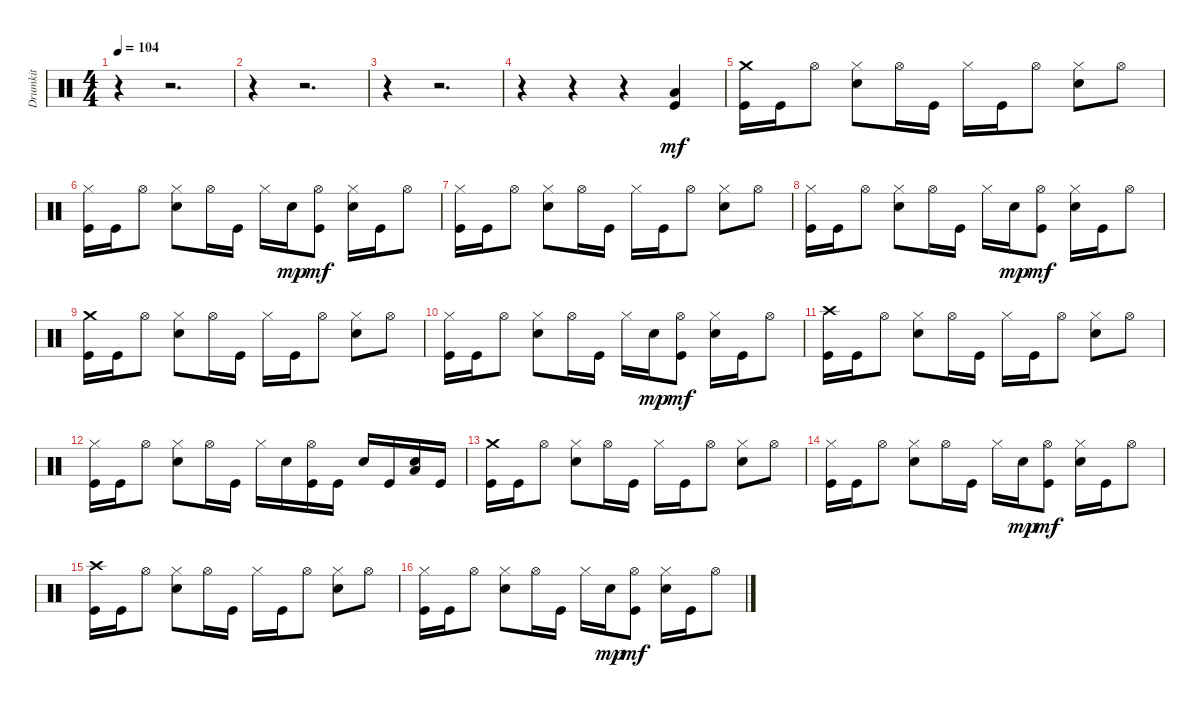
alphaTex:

\track ("Drumkit" "Drumkit") {instrument percussion}
\staff {score}
\articulation defaults
\ts (4 4)
\tempo 104
\clef neutral
\ks c
r.4{dy mf} r.2{d} |
r.4 r.2{d} |
r.4 r.2{d} |
r.4 r.4 r.4 ("Kick (hit)" "Low Floor Tom (hit)").4 |
("Crash medium (hit)" "Kick (hit)").16 "Kick (hit)".16 "Hi-Hat (open)".8 ("Snare (hit) 2" "Hi-Hat (closed)").8 "Hi-Hat (open)".16 "Kick (hit)".16 "Hi-Hat (closed)".16 "Kick (hit)".16 "Hi-Hat (open)".8 ("Snare (hit) 2" "Hi-Hat (closed)").8 "Hi-Hat (open)".8 |
("Kick (hit)" "Hi-Hat (closed)").16 "Kick (hit)".16 "Hi-Hat (open)".8 ("Snare (hit) 2" "Hi-Hat (closed)").8 "Hi-Hat (open)".16 "Kick (hit)".16 "Hi-Hat (closed)".16 "Snare (hit) 2".16{dy mp} ("Hi-Hat (open)" "Kick (hit)").8{dy mf} ("Snare (hit) 2" "Hi-Hat (closed)").16 "Kick (hit)".16 "Hi-Hat (open)".8 |
("Kick (hit)" "Hi-Hat (closed)").16 "Kick (hit)".16 "Hi-Hat (open)".8 ("Snare (hit) 2" "Hi-Hat (closed)").8 "Hi-Hat (open)".16 "Kick (hit)".16 "Hi-Hat (closed)".16 "Kick (hit)".16 "Hi-Hat (open)".8 ("Snare (hit) 2" "Hi-Hat (closed)").8 "Hi-Hat (open)".8 |
("Kick (hit)" "Hi-Hat (closed)").16 "Kick (hit)".16 "Hi-Hat (open)".8 ("Snare (hit) 2" "Hi-Hat (closed)").8 "Hi-Hat (open)".16 "Kick (hit)".16 "Hi-Hat (closed)".16 "Snare (hit) 2".16{dy mp} ("Hi-Hat (open)" "Kick (hit)").8{dy mf} ("Snare (hit) 2" "Hi-Hat (closed)").16 "Kick (hit)".16 "Hi-Hat (open)".8 |
("Crash medium (hit)" "Kick (hit)").16 "Kick (hit)".16 "Hi-Hat (open)".8 ("Snare (hit) 2" "Hi-Hat (closed)").8 "Hi-Hat (open)".16 "Kick (hit)".16 "Hi-Hat (closed)".16 "Kick (hit)".16 "Hi-Hat (open)".8 ("Snare (hit) 2" "Hi-Hat (closed)").8 "Hi-Hat (open)".8 |
("Kick (hit)" "Hi-Hat (closed)").16 "Kick (hit)".16 "Hi-Hat (open)".8 ("Snare (hit) 2" "Hi-Hat (closed)").8 "Hi-Hat (open)".16 "Kick (hit)".16 "Hi-Hat (closed)".16 "Snare (hit) 2".16{dy mp} ("Hi-Hat (open)" "Kick (hit)").8{dy mf} ("Snare (hit) 2" "Hi-Hat (closed)").16 "Kick (hit)".16 "Hi-Hat (open)".8 |
("Kick (hit)" "Crash high (hit)").16 "Kick (hit)".16 "Hi-Hat (open)".8 ("Snare (hit) 2" "Hi-Hat (closed)").8 "Hi-Hat (open)".16 "Kick (hit)".16 "Hi-Hat (closed)".16 "Kick (hit)".16 "Hi-Hat (open)".8 ("Snare (hit) 2" "Hi-Hat (closed)").8 "Hi-Hat (open)".8 |
("Kick (hit)" "Hi-Hat (closed)").16 "Kick (hit)".16 "Hi-Hat (open)".8 ("Snare (hit) 2" "Hi-Hat (closed)").8 "Hi-Hat (open)".16 "Kick (hit)".16 "Hi-Hat (closed)".16 "Snare (hit) 2".16 ("Hi-Hat (open)" "Kick (hit)").16 "Kick (hit)".16 "Snare (hit) 2".16 "Kick (hit)".16 ("Snare (hit) 2" "Low Tom (hit)").16 "Kick (hit)".16 |
("Crash medium (hit)" "Kick (hit)").16 "Kick (hit)".16 "Hi-Hat (open)".8 ("Snare (hit) 2" "Hi-Hat (closed)").8 "Hi-Hat (open)".16 "Kick (hit)".16 "Hi-Hat (closed)".16 "Kick (hit)".16 "Hi-Hat (open)".8 ("Snare (hit) 2" "Hi-Hat (closed)").8 "Hi-Hat (open)".8 |
("Kick (hit)" "Hi-Hat (closed)").16 "Kick (hit)".16 "Hi-Hat (open)".8 ("Snare (hit) 2" "Hi-Hat (closed)").8 "Hi-Hat (open)".16 "Kick (hit)".16 "Hi-Hat (closed)".16 "Snare (hit) 2".16{dy mp} ("Hi-Hat (open)" "Kick (hit)").8{dy mf} ("Snare (hit) 2" "Hi-Hat (closed)").16 "Kick (hit)".16 "Hi-Hat (open)".8 |
("Kick (hit)" "Crash high (hit)").16 "Kick (hit)".16 "Hi-Hat (open)".8 ("Snare (hit) 2" "Hi-Hat (closed)").8 "Hi-Hat (open)".16 "Kick (hit)".16 "Hi-Hat (closed)".16 "Kick (hit)".16 "Hi-Hat (open)".8 ("Snare (hit) 2" "Hi-Hat (closed)").8 "Hi-Hat (open)".8 |
("Kick (hit)" "Hi-Hat (closed)").16 "Kick (hit)".16 "Hi-Hat (open)".8 ("Snare (hit) 2" "Hi-Hat (closed)").8 "Hi-Hat (open)".16 "Kick (hit)".16 "Hi-Hat (closed)".16 "Snare (hit) 2".16{dy mp} ("Hi-Hat (open)" "Kick (hit)").8{dy mf} ("Snare (hit) 2" "Hi-Hat (closed)").16 "Kick (hit)".16 "Hi-Hat (open)".8
